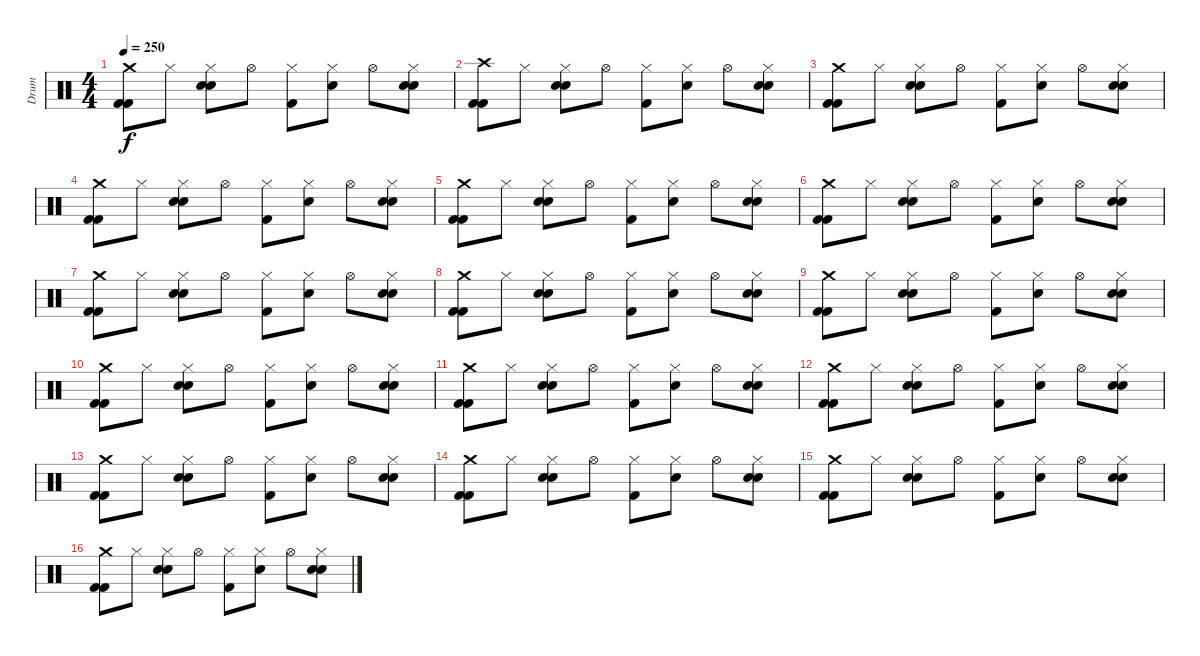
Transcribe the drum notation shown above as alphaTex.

\track ("Drum" "Drum") {instrument percussion}
\staff {score}
\articulation defaults
\ts (4 4)
\tempo 250
\clef neutral
\ks c
("Crash medium (hit)" "Kick (hit) 2" "Kick (hit) 2").8{dy f} "Hi-Hat (closed)".8 ("Hi-Hat (closed)" "Snare (hit) 2" "Snare (hit) 2").8 "Hi-Hat (open)".8 ("Hi-Hat (closed)" "Kick (hit) 2").8 ("Hi-Hat (closed)" "Snare (hit) 2").8 "Hi-Hat (open)".8 ("Hi-Hat (closed)" "Snare (hit) 2" "Snare (hit) 2").8 |
("Crash high (hit)" "Kick (hit) 2" "Kick (hit) 2").8 "Hi-Hat (closed)".8 ("Hi-Hat (closed)" "Snare (hit) 2" "Snare (hit) 2").8 "Hi-Hat (open)".8 ("Hi-Hat (closed)" "Kick (hit) 2").8 ("Hi-Hat (closed)" "Snare (hit) 2").8 "Hi-Hat (open)".8 ("Hi-Hat (closed)" "Snare (hit) 2" "Snare (hit) 2").8 |
("Crash medium (hit)" "Kick (hit) 2" "Kick (hit) 2").8 "Hi-Hat (closed)".8 ("Hi-Hat (closed)" "Snare (hit) 2" "Snare (hit) 2").8 "Hi-Hat (open)".8 ("Hi-Hat (closed)" "Kick (hit) 2").8 ("Hi-Hat (closed)" "Snare (hit) 2").8 "Hi-Hat (open)".8 ("Hi-Hat (closed)" "Snare (hit) 2" "Snare (hit) 2").8 |
("Crash medium (hit)" "Kick (hit) 2" "Kick (hit) 2").8 "Hi-Hat (closed)".8 ("Hi-Hat (closed)" "Snare (hit) 2" "Snare (hit) 2").8 "Hi-Hat (open)".8 ("Hi-Hat (closed)" "Kick (hit) 2").8 ("Hi-Hat (closed)" "Snare (hit) 2").8 "Hi-Hat (open)".8 ("Hi-Hat (closed)" "Snare (hit) 2" "Snare (hit) 2").8 |
("Crash medium (hit)" "Kick (hit) 2" "Kick (hit) 2").8 "Hi-Hat (closed)".8 ("Hi-Hat (closed)" "Snare (hit) 2" "Snare (hit) 2").8 "Hi-Hat (open)".8 ("Hi-Hat (closed)" "Kick (hit) 2").8 ("Hi-Hat (closed)" "Snare (hit) 2").8 "Hi-Hat (open)".8 ("Hi-Hat (closed)" "Snare (hit) 2" "Snare (hit) 2").8 |
("Crash medium (hit)" "Kick (hit) 2" "Kick (hit) 2").8 "Hi-Hat (closed)".8 ("Hi-Hat (closed)" "Snare (hit) 2" "Snare (hit) 2").8 "Hi-Hat (open)".8 ("Hi-Hat (closed)" "Kick (hit) 2").8 ("Hi-Hat (closed)" "Snare (hit) 2").8 "Hi-Hat (open)".8 ("Hi-Hat (closed)" "Snare (hit) 2" "Snare (hit) 2").8 |
("Crash medium (hit)" "Kick (hit) 2" "Kick (hit) 2").8 "Hi-Hat (closed)".8 ("Hi-Hat (closed)" "Snare (hit) 2" "Snare (hit) 2").8 "Hi-Hat (open)".8 ("Hi-Hat (closed)" "Kick (hit) 2").8 ("Hi-Hat (closed)" "Snare (hit) 2").8 "Hi-Hat (open)".8 ("Hi-Hat (closed)" "Snare (hit) 2" "Snare (hit) 2").8 |
("Crash medium (hit)" "Kick (hit) 2" "Kick (hit) 2").8 "Hi-Hat (closed)".8 ("Hi-Hat (closed)" "Snare (hit) 2" "Snare (hit) 2").8 "Hi-Hat (open)".8 ("Hi-Hat (closed)" "Kick (hit) 2").8 ("Hi-Hat (closed)" "Snare (hit) 2").8 "Hi-Hat (open)".8 ("Hi-Hat (closed)" "Snare (hit) 2" "Snare (hit) 2").8 |
("Crash medium (hit)" "Kick (hit) 2" "Kick (hit) 2").8 "Hi-Hat (closed)".8 ("Hi-Hat (closed)" "Snare (hit) 2" "Snare (hit) 2").8 "Hi-Hat (open)".8 ("Hi-Hat (closed)" "Kick (hit) 2").8 ("Hi-Hat (closed)" "Snare (hit) 2").8 "Hi-Hat (open)".8 ("Hi-Hat (closed)" "Snare (hit) 2" "Snare (hit) 2").8 |
("Crash medium (hit)" "Kick (hit) 2" "Kick (hit) 2").8 "Hi-Hat (closed)".8 ("Hi-Hat (closed)" "Snare (hit) 2" "Snare (hit) 2").8 "Hi-Hat (open)".8 ("Hi-Hat (closed)" "Kick (hit) 2").8 ("Hi-Hat (closed)" "Snare (hit) 2").8 "Hi-Hat (open)".8 ("Hi-Hat (closed)" "Snare (hit) 2" "Snare (hit) 2").8 |
("Crash medium (hit)" "Kick (hit) 2" "Kick (hit) 2").8 "Hi-Hat (closed)".8 ("Hi-Hat (closed)" "Snare (hit) 2" "Snare (hit) 2").8 "Hi-Hat (open)".8 ("Hi-Hat (closed)" "Kick (hit) 2").8 ("Hi-Hat (closed)" "Snare (hit) 2").8 "Hi-Hat (open)".8 ("Hi-Hat (closed)" "Snare (hit) 2" "Snare (hit) 2").8 |
("Crash medium (hit)" "Kick (hit) 2" "Kick (hit) 2").8 "Hi-Hat (closed)".8 ("Hi-Hat (closed)" "Snare (hit) 2" "Snare (hit) 2").8 "Hi-Hat (open)".8 ("Hi-Hat (closed)" "Kick (hit) 2").8 ("Hi-Hat (closed)" "Snare (hit) 2").8 "Hi-Hat (open)".8 ("Hi-Hat (closed)" "Snare (hit) 2" "Snare (hit) 2").8 |
("Crash medium (hit)" "Kick (hit) 2" "Kick (hit) 2").8 "Hi-Hat (closed)".8 ("Hi-Hat (closed)" "Snare (hit) 2" "Snare (hit) 2").8 "Hi-Hat (open)".8 ("Hi-Hat (closed)" "Kick (hit) 2").8 ("Hi-Hat (closed)" "Snare (hit) 2").8 "Hi-Hat (open)".8 ("Hi-Hat (closed)" "Snare (hit) 2" "Snare (hit) 2").8 |
("Crash medium (hit)" "Kick (hit) 2" "Kick (hit) 2").8 "Hi-Hat (closed)".8 ("Hi-Hat (closed)" "Snare (hit) 2" "Snare (hit) 2").8 "Hi-Hat (open)".8 ("Hi-Hat (closed)" "Kick (hit) 2").8 ("Hi-Hat (closed)" "Snare (hit) 2").8 "Hi-Hat (open)".8 ("Hi-Hat (closed)" "Snare (hit) 2" "Snare (hit) 2").8 |
("Crash medium (hit)" "Kick (hit) 2" "Kick (hit) 2").8 "Hi-Hat (closed)".8 ("Hi-Hat (closed)" "Snare (hit) 2" "Snare (hit) 2").8 "Hi-Hat (open)".8 ("Hi-Hat (closed)" "Kick (hit) 2").8 ("Hi-Hat (closed)" "Snare (hit) 2").8 "Hi-Hat (open)".8 ("Hi-Hat (closed)" "Snare (hit) 2" "Snare (hit) 2").8 |
("Crash medium (hit)" "Kick (hit) 2" "Kick (hit) 2").8 "Hi-Hat (closed)".8 ("Hi-Hat (closed)" "Snare (hit) 2" "Snare (hit) 2").8 "Hi-Hat (open)".8 ("Hi-Hat (closed)" "Kick (hit) 2").8 ("Hi-Hat (closed)" "Snare (hit) 2").8 "Hi-Hat (open)".8 ("Hi-Hat (closed)" "Snare (hit) 2" "Snare (hit) 2").8
